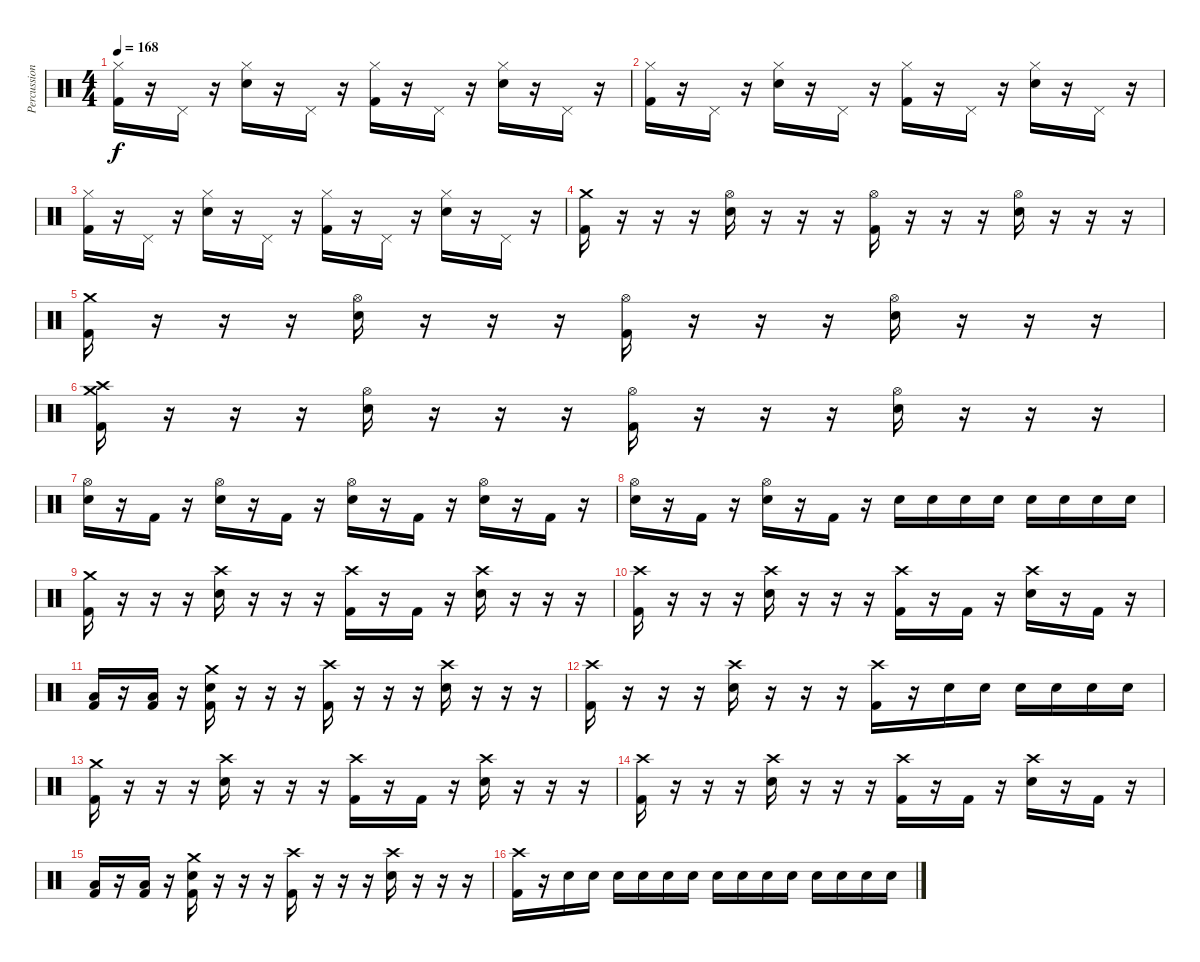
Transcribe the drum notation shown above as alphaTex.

\track ("Percussion" "Percussion") {instrument percussion}
\staff {score}
\articulation defaults
\ts (4 4)
\tempo 168
\clef neutral
\ks c
("Hi-Hat (closed)" "Kick (hit) 2").16{dy f} r.16 "Pedal Hi-Hat (hit)".16 r.16 ("Hi-Hat (closed)" "Snare (hit) 2").16 r.16 "Pedal Hi-Hat (hit)".16 r.16 ("Hi-Hat (closed)" "Kick (hit) 2").16 r.16 "Pedal Hi-Hat (hit)".16 r.16 ("Hi-Hat (closed)" "Snare (hit) 2").16 r.16 "Pedal Hi-Hat (hit)".16 r.16 |
("Hi-Hat (closed)" "Kick (hit) 2").16 r.16 "Pedal Hi-Hat (hit)".16 r.16 ("Hi-Hat (closed)" "Snare (hit) 2").16 r.16 "Pedal Hi-Hat (hit)".16 r.16 ("Hi-Hat (closed)" "Kick (hit) 2").16 r.16 "Pedal Hi-Hat (hit)".16 r.16 ("Hi-Hat (closed)" "Snare (hit) 2").16 r.16 "Pedal Hi-Hat (hit)".16 r.16 |
("Hi-Hat (closed)" "Kick (hit) 2").16 r.16 "Pedal Hi-Hat (hit)".16 r.16 ("Hi-Hat (closed)" "Snare (hit) 2").16 r.16 "Pedal Hi-Hat (hit)".16 r.16 ("Hi-Hat (closed)" "Kick (hit) 2").16 r.16 "Pedal Hi-Hat (hit)".16 r.16 ("Hi-Hat (closed)" "Snare (hit) 2").16 r.16 "Pedal Hi-Hat (hit)".16 r.16 |
("Crash medium (hit)" "Kick (hit) 2").16 r.16 r.16 r.16 ("Hi-Hat (open)" "Snare (hit) 2").16 r.16 r.16 r.16 ("Hi-Hat (open)" "Kick (hit) 2").16 r.16 r.16 r.16 ("Hi-Hat (open)" "Snare (hit) 2").16 r.16 r.16 r.16 |
("Crash medium (hit)" "Kick (hit) 2").16 r.16 r.16 r.16 ("Hi-Hat (open)" "Snare (hit) 2").16 r.16 r.16 r.16 ("Hi-Hat (open)" "Kick (hit) 2").16 r.16 r.16 r.16 ("Hi-Hat (open)" "Snare (hit) 2").16 r.16 r.16 r.16 |
("Crash medium (hit)" "Crash high (hit)" "Kick (hit) 2").16 r.16 r.16 r.16 ("Hi-Hat (open)" "Snare (hit) 2").16 r.16 r.16 r.16 ("Hi-Hat (open)" "Kick (hit) 2").16 r.16 r.16 r.16 ("Hi-Hat (open)" "Snare (hit) 2").16 r.16 r.16 r.16 |
("Hi-Hat (open)" "Snare (hit) 2").16 r.16 "Kick (hit) 2".16 r.16 ("Hi-Hat (open)" "Snare (hit) 2").16 r.16 "Kick (hit) 2".16 r.16 ("Hi-Hat (open)" "Snare (hit) 2").16 r.16 "Kick (hit) 2".16 r.16 ("Hi-Hat (open)" "Snare (hit) 2").16 r.16 "Kick (hit) 2".16 r.16 |
("Hi-Hat (open)" "Snare (hit) 2").16 r.16 "Kick (hit) 2".16 r.16 ("Hi-Hat (open)" "Snare (hit) 2").16 r.16 "Kick (hit) 2".16 r.16 "Snare (hit) 2".16 "Snare (hit) 2".16 "Snare (hit) 2".16 "Snare (hit) 2".16 "Snare (hit) 2".16 "Snare (hit) 2".16 "Snare (hit) 2".16 "Snare (hit) 2".16 |
("Crash medium (hit)" "Kick (hit) 2").16 r.16 r.16 r.16 ("Crash high (hit)" "Snare (hit) 2").16 r.16 r.16 r.16 ("Crash high (hit)" "Kick (hit) 2").16 r.16 "Kick (hit) 2".16 r.16 ("Crash high (hit)" "Snare (hit) 2").16 r.16 r.16 r.16 |
("Crash high (hit)" "Kick (hit) 2").16 r.16 r.16 r.16 ("Crash high (hit)" "Snare (hit) 2").16 r.16 r.16 r.16 ("Crash high (hit)" "Kick (hit) 2").16 r.16 "Kick (hit) 2".16 r.16 ("Crash high (hit)" "Snare (hit) 2").16 r.16 "Kick (hit) 2".16 r.16 |
("Low Floor Tom (hit)" "Kick (hit) 2").16 r.16 ("Low Floor Tom (hit)" "Kick (hit) 2").16 r.16 ("Crash medium (hit)" "Snare (hit) 2" "Kick (hit) 2").16 r.16 r.16 r.16 ("Crash high (hit)" "Kick (hit) 2").16 r.16 r.16 r.16 ("Crash high (hit)" "Snare (hit) 2").16 r.16 r.16 r.16 |
("Crash high (hit)" "Kick (hit) 2").16 r.16 r.16 r.16 ("Crash high (hit)" "Snare (hit) 2").16 r.16 r.16 r.16 ("Crash high (hit)" "Kick (hit) 2").16 r.16 "Snare (hit) 2".16 "Snare (hit) 2".16 "Snare (hit) 2".16 "Snare (hit) 2".16 "Snare (hit) 2".16 "Snare (hit) 2".16 |
("Crash medium (hit)" "Kick (hit) 2").16 r.16 r.16 r.16 ("Crash high (hit)" "Snare (hit) 2").16 r.16 r.16 r.16 ("Crash high (hit)" "Kick (hit) 2").16 r.16 "Kick (hit) 2".16 r.16 ("Crash high (hit)" "Snare (hit) 2").16 r.16 r.16 r.16 |
("Crash high (hit)" "Kick (hit) 2").16 r.16 r.16 r.16 ("Crash high (hit)" "Snare (hit) 2").16 r.16 r.16 r.16 ("Crash high (hit)" "Kick (hit) 2").16 r.16 "Kick (hit) 2".16 r.16 ("Crash high (hit)" "Snare (hit) 2").16 r.16 "Kick (hit) 2".16 r.16 |
("Low Floor Tom (hit)" "Kick (hit) 2").16 r.16 ("Low Floor Tom (hit)" "Kick (hit) 2").16 r.16 ("Crash medium (hit)" "Snare (hit) 2" "Kick (hit) 2").16 r.16 r.16 r.16 ("Crash high (hit)" "Kick (hit) 2").16 r.16 r.16 r.16 ("Crash high (hit)" "Snare (hit) 2").16 r.16 r.16 r.16 |
("Crash high (hit)" "Kick (hit) 2").16 r.16 "Snare (hit) 2".16 "Snare (hit) 2".16 "Snare (hit) 2".16 "Snare (hit) 2".16 "Snare (hit) 2".16 "Snare (hit) 2".16 "Snare (hit) 2".16 "Snare (hit) 2".16 "Snare (hit) 2".16 "Snare (hit) 2".16 "Snare (hit) 2".16 "Snare (hit) 2".16 "Snare (hit) 2".16 "Snare (hit) 2".16
